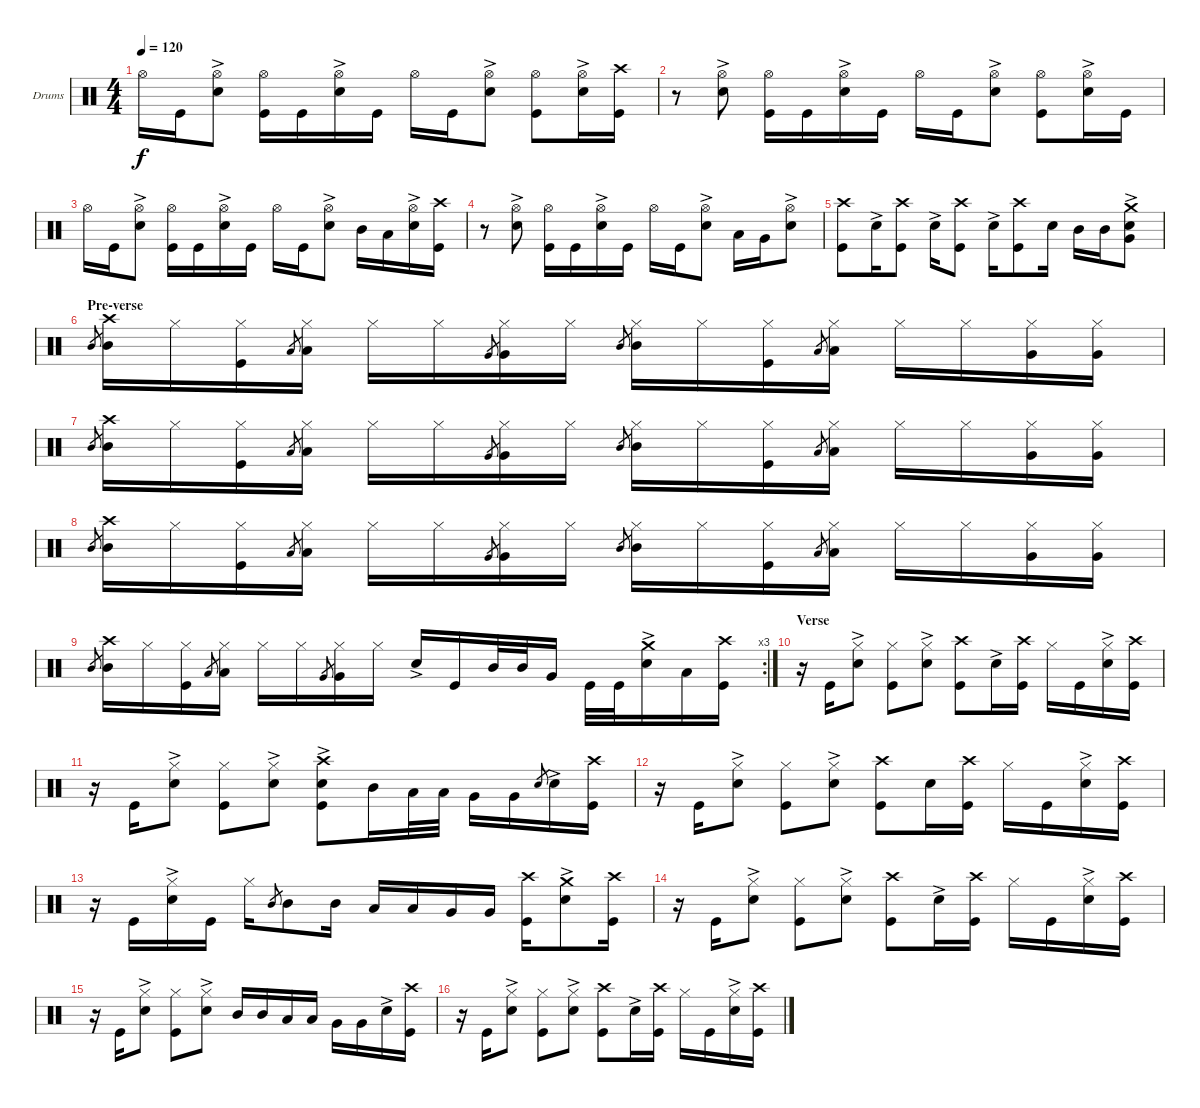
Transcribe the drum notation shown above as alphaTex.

\defaultSystemsLayout 4
\bracketExtendMode groupsimilarinstruments
\firstSystemTrackNameOrientation horizontal
\otherSystemsTrackNameOrientation horizontal
\track ("Drumkit" "Drums") {instrument percussion}
\staff {score}
\articulation defaults
\ts (4 4)
\tempo 120
\clef neutral
\ks c "Hi-Hat (open)".16{dy f} "Kick (hit)".16
("Snare (hit) 2"{ac} "Hi-Hat (open)").8 ("Kick (hit)" "Hi-Hat (open)").16 "Kick (hit)".16 ("Snare (hit) 2"{ac} "Hi-Hat (open)").16 "Kick (hit)".16 "Hi-Hat (open)".16 "Kick (hit)".16 ("Snare (hit) 2"{ac} "Hi-Hat (open)").8 ("Kick (hit)" "Hi-Hat (open)").8 ("Snare (hit) 2"{ac} "Hi-Hat (open)").16 ("Kick (hit)" "Crash high (hit)").16 |
r.8 ("Snare (hit) 2"{ac} "Hi-Hat (open)").8 ("Kick (hit)" "Hi-Hat (open)").16 "Kick (hit)".16 ("Snare (hit) 2"{ac} "Hi-Hat (open)").16 "Kick (hit)".16 "Hi-Hat (open)".16 "Kick (hit)".16 ("Snare (hit) 2"{ac} "Hi-Hat (open)").8 ("Kick (hit)" "Hi-Hat (open)").8 ("Snare (hit) 2"{ac} "Hi-Hat (open)").16 "Kick (hit)".16 |
"Hi-Hat (open)".16 "Kick (hit)".16 ("Snare (hit) 2"{ac} "Hi-Hat (open)").8 ("Kick (hit)" "Hi-Hat (open)").16 "Kick (hit)".16 ("Snare (hit) 2"{ac} "Hi-Hat (open)").16 "Kick (hit)".16 "Hi-Hat (open)".16 "Kick (hit)".16 ("Snare (hit) 2"{ac} "Hi-Hat (open)").8 "Mid Tom (hit)".16 "Low Tom (hit)".16 ("Snare (hit) 2"{ac} "Hi-Hat (open)").16 ("Kick (hit)" "Crash high (hit)").16 |
r.8 ("Snare (hit) 2"{ac} "Hi-Hat (open)").8 ("Kick (hit)" "Hi-Hat (open)").16 "Kick (hit)".16 ("Snare (hit) 2"{ac} "Hi-Hat (open)").16 "Kick (hit)".16 "Hi-Hat (open)".16 "Kick (hit)".16 ("Snare (hit) 2"{ac} "Hi-Hat (open)").8 "Low Tom (hit)".16 "Very Low Tom (hit)".16 ("Snare (hit) 2"{ac} "Hi-Hat (open)").8 |
("Kick (hit)" "Crash high (hit)").8 "Snare (hit) 2"{ac}.16 ("Kick (hit)" "Crash high (hit)").8 "Snare (hit) 2"{ac}.16 ("Kick (hit)" "Crash high (hit)").8 "Snare (hit) 2"{ac}.16 ("Kick (hit)" "Crash high (hit)").8 "Snare (hit) 2".16 "Mid Tom (hit)".16 "Mid Tom (hit)".16 ("Snare (hit) 2"{ac} "Very Low Tom (hit)" "Crash medium (hit)"{ac}).8 |
\section ("" "Pre-verse")
"Mid Tom (hit)".8{gr} ("Mid Tom (hit)" "Crash high (hit)").16 "Hi-Hat (closed)".16 ("Hi-Hat (closed)" "Kick (hit)").16 "Low Tom (hit)".8{gr} ("Hi-Hat (closed)" "Low Tom (hit)").16 "Hi-Hat (closed)".16 "Hi-Hat (closed)".16 "Very Low Tom (hit)".8{gr} ("Hi-Hat (closed)" "Very Low Tom (hit)").16 "Hi-Hat (closed)".16 "Mid Tom (hit)".8{gr} ("Hi-Hat (closed)" "Mid Tom (hit)").16 "Hi-Hat (closed)".16 ("Hi-Hat (closed)" "Kick (hit)").16 "Low Tom (hit)".8{gr} ("Hi-Hat (closed)" "Low Tom (hit)").16 "Hi-Hat (closed)".16 "Hi-Hat (closed)".16 ("Hi-Hat (closed)" "Very Low Tom (hit)").16 ("Hi-Hat (closed)" "Very Low Tom (hit)").16 |
"Mid Tom (hit)".8{gr} ("Mid Tom (hit)" "Crash high (hit)").16 "Hi-Hat (closed)".16 ("Hi-Hat (closed)" "Kick (hit)").16 "Low Tom (hit)".8{gr} ("Hi-Hat (closed)" "Low Tom (hit)").16 "Hi-Hat (closed)".16 "Hi-Hat (closed)".16 "Very Low Tom (hit)".8{gr} ("Hi-Hat (closed)" "Very Low Tom (hit)").16 "Hi-Hat (closed)".16 "Mid Tom (hit)".8{gr} ("Hi-Hat (closed)" "Mid Tom (hit)").16 "Hi-Hat (closed)".16 ("Hi-Hat (closed)" "Kick (hit)").16 "Low Tom (hit)".8{gr} ("Hi-Hat (closed)" "Low Tom (hit)").16 "Hi-Hat (closed)".16 "Hi-Hat (closed)".16 ("Hi-Hat (closed)" "Very Low Tom (hit)").16 ("Hi-Hat (closed)" "Very Low Tom (hit)").16 |
\scale
0.508143 "Mid Tom (hit)".8{gr} ("Mid Tom (hit)" "Crash high (hit)").16 "Hi-Hat (closed)".16 ("Hi-Hat (closed)" "Kick (hit)").16 "Low Tom (hit)".8{gr} ("Hi-Hat (closed)" "Low Tom (hit)").16 "Hi-Hat (closed)".16 "Hi-Hat (closed)".16 "Very Low Tom (hit)".8{gr} ("Hi-Hat (closed)" "Very Low Tom (hit)").16 "Hi-Hat (closed)".16 "Mid Tom (hit)".8{gr} ("Hi-Hat (closed)" "Mid Tom (hit)").16 "Hi-Hat (closed)".16 ("Hi-Hat (closed)" "Kick (hit)").16 "Low Tom (hit)".8{gr} ("Hi-Hat (closed)" "Low Tom (hit)").16 "Hi-Hat (closed)".16 "Hi-Hat (closed)".16 ("Hi-Hat (closed)" "Very Low Tom (hit)").16 ("Hi-Hat (closed)" "Very Low Tom (hit)").16 |
\rc 3
\scale
0.491857 "Mid Tom (hit)".8{gr} ("Mid Tom (hit)" "Crash high (hit)").16 "Hi-Hat (closed)".16 ("Hi-Hat (closed)" "Kick (hit)").16 "Low Tom (hit)".8{gr} ("Hi-Hat (closed)" "Low Tom (hit)").16 "Hi-Hat (closed)".16 "Hi-Hat (closed)".16 "Very Low Tom (hit)".8{gr} ("Hi-Hat (closed)" "Very Low Tom (hit)").16 "Hi-Hat (closed)".16 "Snare (hit) 2"{ac}.16 "Kick (hit)".16 "Mid Tom (hit)".32 "Mid Tom (hit)".32 "Very Low Tom (hit)".16 "Kick (hit)".32 "Kick (hit)".32 ("Snare (hit) 2"{ac} "Crash medium (hit)"{ac}).16 "Low Tom (hit)".16 ("Kick (hit)" "Crash high (hit)").16 |
\section ("" "Verse")
r.16 "Kick (hit)".16 ("Snare (hit) 2"{ac} "Hi-Hat (closed)").8 ("Kick (hit)" "Hi-Hat (closed)").8 ("Snare (hit) 2"{ac} "Hi-Hat (closed)").8 ("Kick (hit)" "Crash high (hit)").8 "Snare (hit) 2"{ac}.16 ("Kick (hit)" "Crash high (hit)").16 "Hi-Hat (closed)".16 "Kick (hit)".16 ("Snare (hit) 2"{ac} "Hi-Hat (closed)").16 ("Kick (hit)" "Crash high (hit)").16 |
r.16 "Kick (hit)".16 ("Snare (hit) 2"{ac} "Hi-Hat (closed)").8 ("Kick (hit)" "Hi-Hat (closed)").8 ("Snare (hit) 2"{ac} "Hi-Hat (closed)").8 ("Kick (hit)" "Snare (hit) 2"{ac} "Crash high (hit)").8 "Mid Tom (hit)".16 "Low Tom (hit)".32 "Low Tom (hit)".32 "Very Low Tom (hit)".16 "Very Low Tom (hit)".16 "Snare (hit) 2".8{gr} "Snare (hit) 2"{ac}.16 ("Kick (hit)" "Crash high (hit)").16 |
r.16 "Kick (hit)".16 ("Snare (hit) 2"{ac} "Hi-Hat (closed)").8 ("Kick (hit)" "Hi-Hat (closed)").8 ("Snare (hit) 2"{ac} "Hi-Hat (closed)").8 ("Kick (hit)" "Crash high (hit)").8 "Snare (hit) 2".16 ("Kick (hit)" "Crash high (hit)").16 "Hi-Hat (closed)".16 "Kick (hit)".16 ("Snare (hit) 2"{ac} "Hi-Hat (closed)").16 ("Kick (hit)" "Crash high (hit)").16 |
r.16 "Kick (hit)".16 ("Snare (hit) 2"{ac} "Hi-Hat (closed)").16 "Kick (hit)".16 "Hi-Hat (closed)".16 "Mid Tom (hit)".8{gr} "Mid Tom (hit)".8 "Mid Tom (hit)".16 "Low Tom (hit)".16 "Low Tom (hit)".16 "Very Low Tom (hit)".16 "Very Low Tom (hit)".16 ("Kick (hit)" "Crash high (hit)").16 ("Snare (hit) 2"{ac} "Crash medium (hit)"{ac}).8 ("Kick (hit)" "Crash high (hit)").16 |
r.16 "Kick (hit)".16 ("Snare (hit) 2"{ac} "Hi-Hat (closed)").8 ("Kick (hit)" "Hi-Hat (closed)").8 ("Snare (hit) 2"{ac} "Hi-Hat (closed)").8 ("Kick (hit)" "Crash high (hit)").8 "Snare (hit) 2"{ac}.16 ("Kick (hit)" "Crash high (hit)").16 "Hi-Hat (closed)".16 "Kick (hit)".16 ("Snare (hit) 2"{ac} "Hi-Hat (closed)").16 ("Kick (hit)" "Crash high (hit)").16 |
r.16 "Kick (hit)".16 ("Snare (hit) 2"{ac} "Hi-Hat (closed)").8 ("Kick (hit)" "Hi-Hat (closed)").8 ("Snare (hit) 2"{ac} "Hi-Hat (closed)").8 "Mid Tom (hit)".16 "Mid Tom (hit)".16 "Low Tom (hit)".16 "Low Tom (hit)".16 "Very Low Tom (hit)".16 "Very Low Tom (hit)".16 "Snare (hit) 2"{ac}.16 ("Kick (hit)" "Crash high (hit)").16 |
r.16 "Kick (hit)".16 ("Snare (hit) 2"{ac} "Hi-Hat (closed)").8 ("Kick (hit)" "Hi-Hat (closed)").8 ("Snare (hit) 2"{ac} "Hi-Hat (closed)").8 ("Kick (hit)" "Crash high (hit)").8 "Snare (hit) 2"{ac}.16 ("Kick (hit)" "Crash high (hit)").16 "Hi-Hat (closed)".16 "Kick (hit)".16 ("Snare (hit) 2"{ac} "Hi-Hat (closed)").16 ("Kick (hit)" "Crash high (hit)").16
